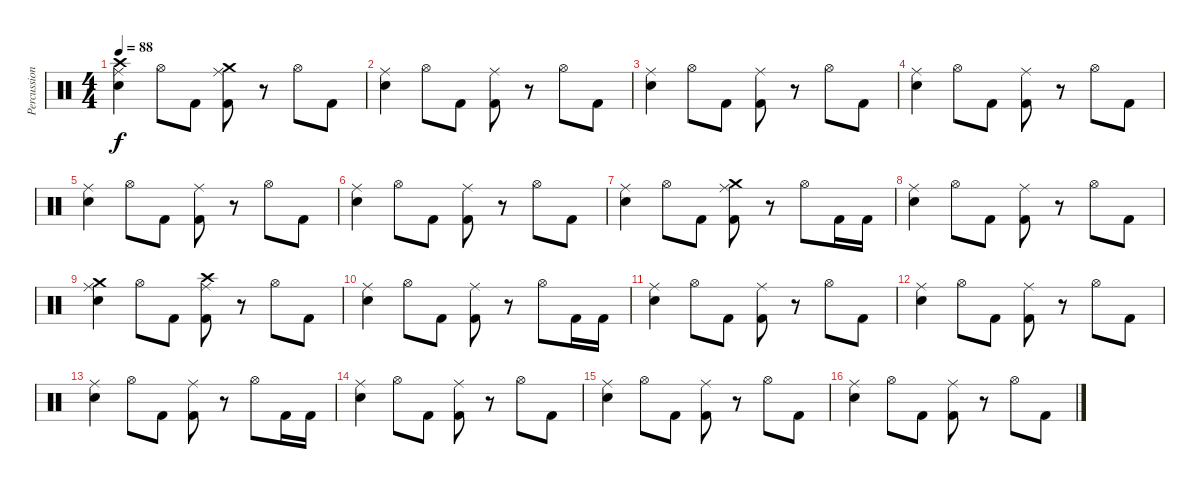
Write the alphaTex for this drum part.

\track ("Percussion" "Percussion") {instrument percussion}
\staff {score}
\articulation defaults
\ts (4 4)
\tempo 88
\clef neutral
\ks c
("Electric Snare (hit)" "Ride (middle)" "Crash high (hit)").4{dy f} "Hi-Hat (open)".8 "Kick (hit) 2".8 ("Kick (hit) 2" "Ride (middle)" "Crash medium (hit)").8 r.8 "Hi-Hat (open)".8 "Kick (hit) 2".8 |
("Electric Snare (hit)" "Ride (middle)").4 "Hi-Hat (open)".8 "Kick (hit) 2".8 ("Kick (hit) 2" "Ride (middle)").8 r.8 "Hi-Hat (open)".8 "Kick (hit) 2".8 |
("Electric Snare (hit)" "Ride (middle)").4 "Hi-Hat (open)".8 "Kick (hit) 2".8 ("Kick (hit) 2" "Ride (middle)").8 r.8 "Hi-Hat (open)".8 "Kick (hit) 2".8 |
("Electric Snare (hit)" "Ride (middle)").4 "Hi-Hat (open)".8 "Kick (hit) 2".8 ("Kick (hit) 2" "Ride (middle)").8 r.8 "Hi-Hat (open)".8 "Kick (hit) 2".8 |
("Electric Snare (hit)" "Ride (middle)").4 "Hi-Hat (open)".8 "Kick (hit) 2".8 ("Kick (hit) 2" "Ride (middle)").8 r.8 "Hi-Hat (open)".8 "Kick (hit) 2".8 |
("Electric Snare (hit)" "Ride (middle)").4 "Hi-Hat (open)".8 "Kick (hit) 2".8 ("Kick (hit) 2" "Ride (middle)").8 r.8 "Hi-Hat (open)".8 "Kick (hit) 2".8 |
("Electric Snare (hit)" "Ride (middle)").4 "Hi-Hat (open)".8 "Kick (hit) 2".8 ("Kick (hit) 2" "Ride (middle)" "Crash medium (hit)").8 r.8 "Hi-Hat (open)".8 "Kick (hit) 2".16 "Kick (hit) 2".16 |
("Electric Snare (hit)" "Ride (middle)").4 "Hi-Hat (open)".8 "Kick (hit) 2".8 ("Kick (hit) 2" "Ride (middle)").8 r.8 "Hi-Hat (open)".8 "Kick (hit) 2".8 |
("Electric Snare (hit)" "Ride (middle)" "Crash medium (hit)").4 "Hi-Hat (open)".8 "Kick (hit) 2".8 ("Kick (hit) 2" "Ride (middle)" "Crash high (hit)").8 r.8 "Hi-Hat (open)".8 "Kick (hit) 2".8 |
("Electric Snare (hit)" "Ride (middle)").4 "Hi-Hat (open)".8 "Kick (hit) 2".8 ("Kick (hit) 2" "Ride (middle)").8 r.8 "Hi-Hat (open)".8 "Kick (hit) 2".16 "Kick (hit) 2".16 |
("Electric Snare (hit)" "Ride (middle)").4 "Hi-Hat (open)".8 "Kick (hit) 2".8 ("Kick (hit) 2" "Ride (middle)").8 r.8 "Hi-Hat (open)".8 "Kick (hit) 2".8 |
("Electric Snare (hit)" "Ride (middle)").4 "Hi-Hat (open)".8 "Kick (hit) 2".8 ("Kick (hit) 2" "Ride (middle)").8 r.8 "Hi-Hat (open)".8 "Kick (hit) 2".8 |
("Electric Snare (hit)" "Ride (middle)").4 "Hi-Hat (open)".8 "Kick (hit) 2".8 ("Kick (hit) 2" "Ride (middle)").8 r.8 "Hi-Hat (open)".8 "Kick (hit) 2".16 "Kick (hit) 2".16 |
("Electric Snare (hit)" "Ride (middle)").4 "Hi-Hat (open)".8 "Kick (hit) 2".8 ("Kick (hit) 2" "Ride (middle)").8 r.8 "Hi-Hat (open)".8 "Kick (hit) 2".8 |
("Electric Snare (hit)" "Ride (middle)").4 "Hi-Hat (open)".8 "Kick (hit) 2".8 ("Kick (hit) 2" "Ride (middle)").8 r.8 "Hi-Hat (open)".8 "Kick (hit) 2".8 |
("Electric Snare (hit)" "Ride (middle)").4 "Hi-Hat (open)".8 "Kick (hit) 2".8 ("Kick (hit) 2" "Ride (middle)").8 r.8 "Hi-Hat (open)".8 "Kick (hit) 2".8
